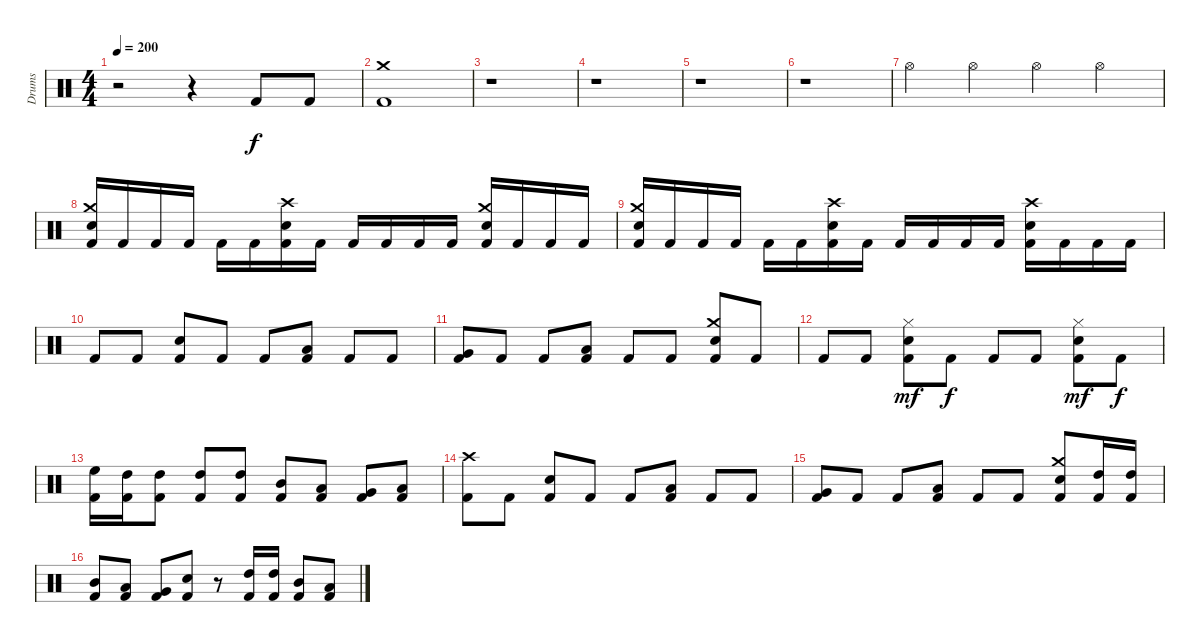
\track ("Drums" "Drums") {instrument percussion}
\staff {score}
\articulation defaults
\ts (4 4)
\tempo 200
\clef neutral
\ks c
r.2{dy f} r.4 "Kick (hit) 2".8 "Kick (hit) 2".8 |
("Kick (hit) 2" "Crash medium (hit)").1 |
r.1 |
r.1 |
r.1 |
r.1 |
"Hi-Hat (open)".4 "Hi-Hat (open)".4 "Hi-Hat (open)".4 "Hi-Hat (open)".4 |
("Kick (hit) 2" "Electric Snare (hit)" "Crash medium (hit)").16 "Kick (hit) 2".16 "Kick (hit) 2".16 "Kick (hit) 2".16 "Kick (hit) 2".16 "Kick (hit) 2".16 ("Kick (hit) 2" "Electric Snare (hit)" "Crash high (hit)").16 "Kick (hit) 2".16 "Kick (hit) 2".16 "Kick (hit) 2".16 "Kick (hit) 2".16 "Kick (hit) 2".16 ("Kick (hit) 2" "Electric Snare (hit)" "Crash medium (hit)").16 "Kick (hit) 2".16 "Kick (hit) 2".16 "Kick (hit) 2".16 |
("Kick (hit) 2" "Electric Snare (hit)" "Crash medium (hit)").16 "Kick (hit) 2".16 "Kick (hit) 2".16 "Kick (hit) 2".16 "Kick (hit) 2".16 "Kick (hit) 2".16 ("Kick (hit) 2" "Electric Snare (hit)" "Crash high (hit)").16 "Kick (hit) 2".16 "Kick (hit) 2".16 "Kick (hit) 2".16 "Kick (hit) 2".16 "Kick (hit) 2".16 ("Kick (hit) 2" "Electric Snare (hit)" "Crash high (hit)").16 "Kick (hit) 2".16 "Kick (hit) 2".16 "Kick (hit) 2".16 |
"Kick (hit) 2".8 "Kick (hit) 2".8 ("Kick (hit) 2" "Electric Snare (hit)").8 "Kick (hit) 2".8 "Kick (hit) 2".8 ("Kick (hit) 2" "Low Tom (hit)").8 "Kick (hit) 2".8 "Kick (hit) 2".8 |
("Kick (hit) 2" "Very Low Tom (hit)").8 "Kick (hit) 2".8 "Kick (hit) 2".8 ("Kick (hit) 2" "Low Floor Tom (hit)").8 "Kick (hit) 2".8 "Kick (hit) 2".8 ("Kick (hit) 2" "Electric Snare (hit)" "Crash medium (hit)").8 "Kick (hit) 2".8 |
"Kick (hit) 2".8 "Kick (hit) 2".8 ("Kick (hit) 2" "Electric Snare (hit)" "Hi-Hat (closed)").8{dy mf} "Kick (hit) 2".8{dy f} "Kick (hit) 2".8 "Kick (hit) 2".8 ("Kick (hit) 2" "Electric Snare (hit)" "Hi-Hat (closed)").8{dy mf} "Kick (hit) 2".8{dy f} |
("Kick (hit) 2" "High Floor Tom (hit)").16 ("Kick (hit) 2" "High Tom (hit)").16 ("Kick (hit) 2" "High Tom (hit)").8 ("Kick (hit) 2" "High Tom (hit)").8 ("Kick (hit) 2" "High Tom (hit)").8 ("Kick (hit) 2" "Mid Tom (hit)").8 ("Kick (hit) 2" "Low Tom (hit)").8 ("Kick (hit) 2" "Very Low Tom (hit)").8 ("Kick (hit) 2" "Low Floor Tom (hit)").8 |
("Kick (hit) 2" "Crash high (hit)").8 "Kick (hit) 2".8 ("Kick (hit) 2" "Electric Snare (hit)").8 "Kick (hit) 2".8 "Kick (hit) 2".8 ("Kick (hit) 2" "Low Tom (hit)").8 "Kick (hit) 2".8 "Kick (hit) 2".8 |
("Kick (hit) 2" "Very Low Tom (hit)").8 "Kick (hit) 2".8 "Kick (hit) 2".8 ("Kick (hit) 2" "Low Floor Tom (hit)").8 "Kick (hit) 2".8 "Kick (hit) 2".8 ("Kick (hit) 2" "Electric Snare (hit)" "Crash medium (hit)").8 ("Kick (hit) 2" "High Tom (hit)").16 ("Kick (hit) 2" "High Tom (hit)").16 |
("Kick (hit) 2" "Mid Tom (hit)").8 ("Kick (hit) 2" "Low Tom (hit)").8 ("Kick (hit) 2" "Very Low Tom (hit)").8 ("Kick (hit) 2" "Electric Snare (hit)").8 r.8 ("Kick (hit) 2" "High Tom (hit)").16 ("Kick (hit) 2" "High Tom (hit)").16 ("Kick (hit) 2" "Mid Tom (hit)").8 ("Kick (hit) 2" "Low Tom (hit)").8
